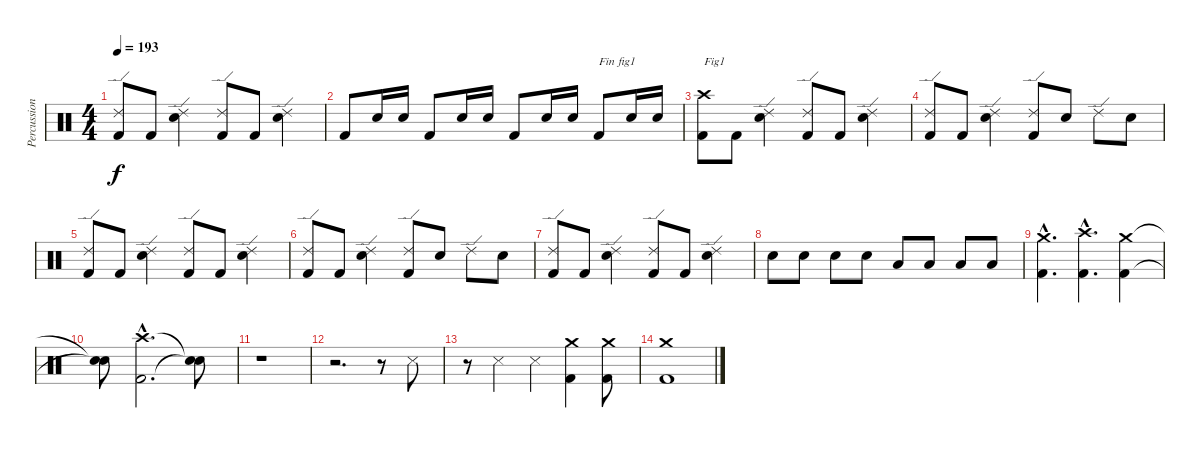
\track ("Percussions" "Percussion") {instrument percussion}
\staff {score}
\articulation defaults
\ts (4 4)
\tempo 193
\clef neutral
\ks c
("Kick (hit) 2" "Ride (edge) 2").8{dy f} "Kick (hit) 2".8 ("Electric Snare (hit)" "Ride (edge) 2").4 ("Kick (hit) 2" "Ride (edge) 2").8 "Kick (hit) 2".8 ("Electric Snare (hit)" "Ride (edge) 2").4 |
"Kick (hit) 2".8 "Electric Snare (hit)".16 "Electric Snare (hit)".16 "Kick (hit) 2".8 "Electric Snare (hit)".16 "Electric Snare (hit)".16 "Kick (hit) 2".8 "Electric Snare (hit)".16 "Electric Snare (hit)".16 "Kick (hit) 2".8{txt "Fin fig1"} "Electric Snare (hit)".16 "Electric Snare (hit)".16 |
("Kick (hit) 2" "Crash high (hit)").8{txt "Fig1"} "Kick (hit) 2".8 ("Electric Snare (hit)" "Ride (edge) 2").4 ("Kick (hit) 2" "Ride (edge) 2").8 "Kick (hit) 2".8 ("Electric Snare (hit)" "Ride (edge) 2").4 |
("Kick (hit) 2" "Ride (edge) 2").8 "Kick (hit) 2".8 ("Electric Snare (hit)" "Ride (edge) 2").4 ("Kick (hit) 2" "Ride (edge) 2").8 "Electric Snare (hit)".8 "Ride (edge) 2".8 "Electric Snare (hit)".8 |
("Kick (hit) 2" "Ride (edge) 2").8 "Kick (hit) 2".8 ("Electric Snare (hit)" "Ride (edge) 2").4 ("Kick (hit) 2" "Ride (edge) 2").8 "Kick (hit) 2".8 ("Electric Snare (hit)" "Ride (edge) 2").4 |
("Kick (hit) 2" "Ride (edge) 2").8 "Kick (hit) 2".8 ("Electric Snare (hit)" "Ride (edge) 2").4 ("Kick (hit) 2" "Ride (edge) 2").8 "Electric Snare (hit)".8 "Ride (edge) 2".8 "Electric Snare (hit)".8 |
("Kick (hit) 2" "Ride (edge) 2").8 "Kick (hit) 2".8 ("Electric Snare (hit)" "Ride (edge) 2").4 ("Kick (hit) 2" "Ride (edge) 2").8 "Kick (hit) 2".8 ("Electric Snare (hit)" "Ride (edge) 2").4 |
"Electric Snare (hit)".8 "Electric Snare (hit)".8 "Electric Snare (hit)".8 "Electric Snare (hit)".8 "Low Tom (hit)".8 "Low Tom (hit)".8 "Low Tom (hit)".8 "Low Tom (hit)".8 |
("Kick (hit) 2"{hac} "Crash medium (hit)"{hac}).4{d} ("Kick (hit) 2"{hac} "Crash high (hit)"{hac}).4{d} ("Kick (hit) 2" "Crash medium (hit)").4 |
("Snare (hit)"{t} "Snare (hit)"{t}).8 ("Kick (hit) 2"{hac} "Crash high (hit)"{hac}).2{d} ("Snare (hit)"{t} "Snare (hit)"{t}).8 |
r.1 |
r.2{d} r.8 "Snare (side stick) 3".8 |
r.8 "Snare (side stick) 3".4 "Snare (side stick) 3".4 ("Kick (hit) 2" "Crash medium (hit)").4 ("Kick (hit) 2" "Crash medium (hit)").8 |
("Kick (hit) 2" "Crash medium (hit)").1
